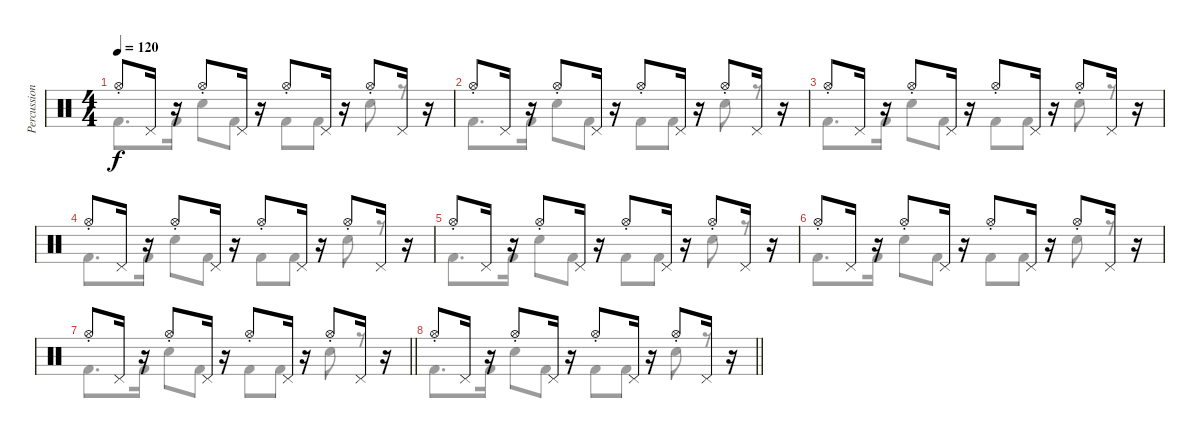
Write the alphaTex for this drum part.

\track ("Percussion" "Percussion") {instrument percussion}
\staff {score}
\articulation defaults
\voice
\ts (4 4)
\tempo 120
\clef neutral
\ks c "Hi-Hat (open)"{st}.8{dy f} "Pedal Hi-Hat (hit)".16
r.16 "Hi-Hat (open)"{st}.8 "Pedal Hi-Hat (hit)".16 r.16 "Hi-Hat (open)"{st}.8 "Pedal Hi-Hat (hit)".16 r.16 "Hi-Hat (open)"{st}.8 "Pedal Hi-Hat (hit)".16 r.16 |
"Hi-Hat (open)"{st}.8 "Pedal Hi-Hat (hit)".16 r.16 "Hi-Hat (open)"{st}.8 "Pedal Hi-Hat (hit)".16 r.16 "Hi-Hat (open)"{st}.8 "Pedal Hi-Hat (hit)".16 r.16 "Hi-Hat (open)"{st}.8 "Pedal Hi-Hat (hit)".16 r.16 |
"Hi-Hat (open)"{st}.8 "Pedal Hi-Hat (hit)".16 r.16 "Hi-Hat (open)"{st}.8 "Pedal Hi-Hat (hit)".16 r.16 "Hi-Hat (open)"{st}.8 "Pedal Hi-Hat (hit)".16 r.16 "Hi-Hat (open)"{st}.8 "Pedal Hi-Hat (hit)".16 r.16 |
"Hi-Hat (open)"{st}.8 "Pedal Hi-Hat (hit)".16 r.16 "Hi-Hat (open)"{st}.8 "Pedal Hi-Hat (hit)".16 r.16 "Hi-Hat (open)"{st}.8 "Pedal Hi-Hat (hit)".16 r.16 "Hi-Hat (open)"{st}.8 "Pedal Hi-Hat (hit)".16 r.16 |
"Hi-Hat (open)"{st}.8 "Pedal Hi-Hat (hit)".16 r.16 "Hi-Hat (open)"{st}.8 "Pedal Hi-Hat (hit)".16 r.16 "Hi-Hat (open)"{st}.8 "Pedal Hi-Hat (hit)".16 r.16 "Hi-Hat (open)"{st}.8 "Pedal Hi-Hat (hit)".16 r.16 |
"Hi-Hat (open)"{st}.8 "Pedal Hi-Hat (hit)".16 r.16 "Hi-Hat (open)"{st}.8 "Pedal Hi-Hat (hit)".16 r.16 "Hi-Hat (open)"{st}.8 "Pedal Hi-Hat (hit)".16 r.16 "Hi-Hat (open)"{st}.8 "Pedal Hi-Hat (hit)".16 r.16 |
\barLineRight lightlight "Hi-Hat (open)"{st}.8 "Pedal Hi-Hat (hit)".16
r.16 "Hi-Hat (open)"{st}.8 "Pedal Hi-Hat (hit)".16 r.16 "Hi-Hat (open)"{st}.8 "Pedal Hi-Hat (hit)".16 r.16 "Hi-Hat (open)"{st}.8 "Pedal Hi-Hat (hit)".16 r.16 |
\barLineRight lightlight "Hi-Hat (open)"{st}.8 "Pedal Hi-Hat (hit)".16
r.16 "Hi-Hat (open)"{st}.8 "Pedal Hi-Hat (hit)".16 r.16 "Hi-Hat (open)"{st}.8 "Pedal Hi-Hat (hit)".16 r.16 "Hi-Hat (open)"{st}.8 "Pedal Hi-Hat (hit)".16 r.16 |
\voice
\clef neutral
\ottava regular
\simile none
\ks c "Kick (hit) 2".8{d dy f} "Kick (hit) 2".16 "Electric Snare (hit)".8 "Kick (hit) 2".8 "Kick (hit) 2".8 "Kick (hit) 2".8 "Electric Snare (hit)".8
r.8 |
"Kick (hit) 2".8{d} "Kick (hit) 2".16 "Electric Snare (hit)".8 "Kick (hit) 2".8 "Kick (hit) 2".8 "Kick (hit) 2".8 "Electric Snare (hit)".8 r.8 |
"Kick (hit) 2".8{d} "Kick (hit) 2".16 "Electric Snare (hit)".8 "Kick (hit) 2".8 "Kick (hit) 2".8 "Kick (hit) 2".8 "Electric Snare (hit)".8 r.8 |
"Kick (hit) 2".8{d} "Kick (hit) 2".16 "Electric Snare (hit)".8 "Kick (hit) 2".8 "Kick (hit) 2".8 "Kick (hit) 2".8 "Electric Snare (hit)".8 r.8 |
"Kick (hit) 2".8{d} "Kick (hit) 2".16 "Electric Snare (hit)".8 "Kick (hit) 2".8 "Kick (hit) 2".8 "Kick (hit) 2".8 "Electric Snare (hit)".8 r.8 |
"Kick (hit) 2".8{d} "Kick (hit) 2".16 "Electric Snare (hit)".8 "Kick (hit) 2".8 "Kick (hit) 2".8 "Kick (hit) 2".8 "Electric Snare (hit)".8 r.8 |
\barLineRight lightlight "Kick (hit) 2".8{d} "Kick (hit) 2".16 "Electric Snare (hit)".8 "Kick (hit) 2".8 "Kick (hit) 2".8 "Kick (hit) 2".8 "Electric Snare (hit)".8
r.8 |
\barLineRight lightlight "Kick (hit) 2".8{d} "Kick (hit) 2".16 "Electric Snare (hit)".8 "Kick (hit) 2".8 "Kick (hit) 2".8 "Kick (hit) 2".8 "Electric Snare (hit)".8
r.8 |
